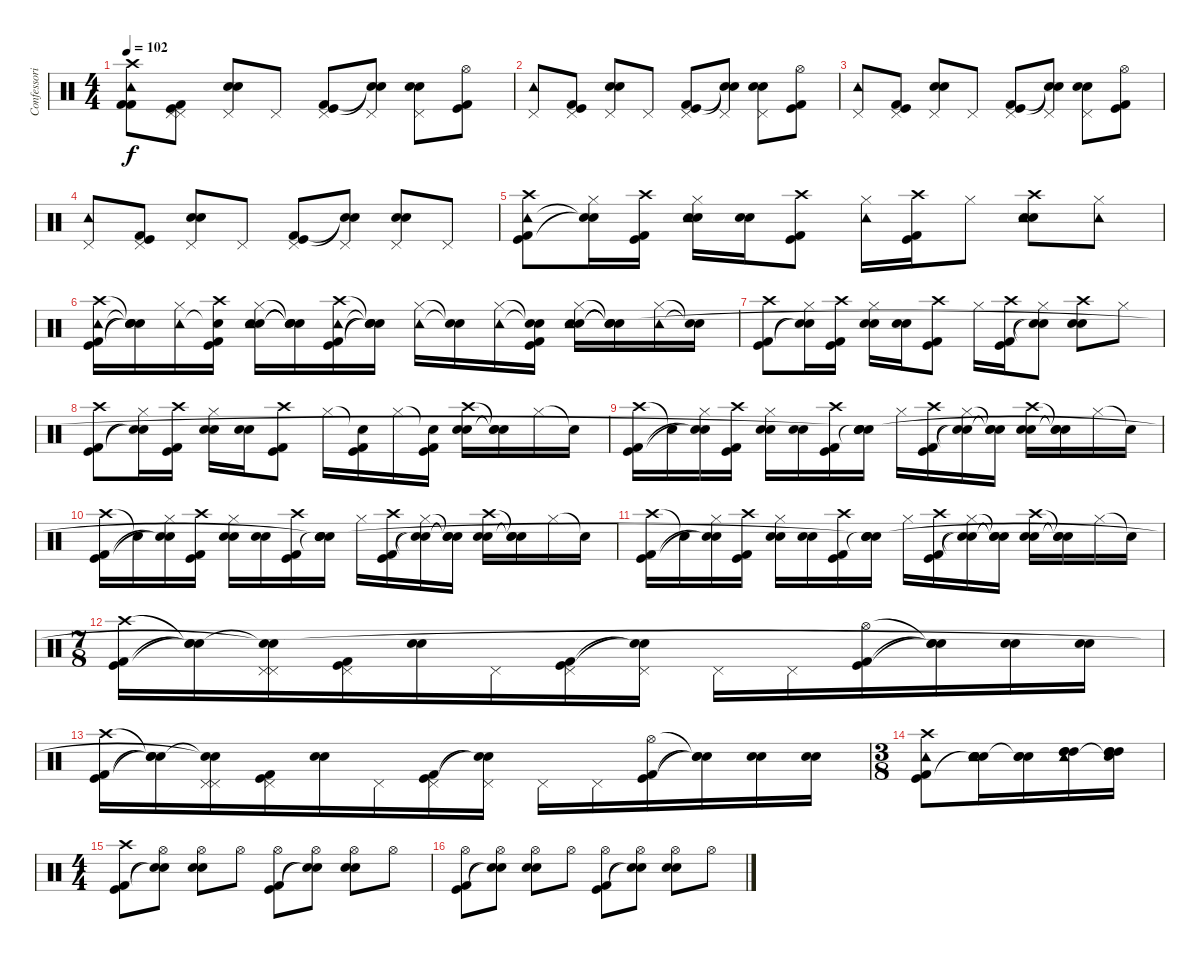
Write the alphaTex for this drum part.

\track ("Confessori" "Confessori") {instrument percussion}
\staff {score}
\articulation defaults
\ts (4 4)
\tempo 102
\clef neutral
\ks c
("Crash high (hit)" "Tambourine (hit)" "Kick (hit) 2" "Kick (hit) 2").8{dy f} ("Pedal Hi-Hat (hit)" "Pedal Hi-Hat (hit)" "Kick (hit) 2" "Kick (hit)").8 ("Pedal Hi-Hat (hit)" "Electric Snare (hit)" "Snare (hit) 2").8 "Pedal Hi-Hat (hit)".8 ("Pedal Hi-Hat (hit)" "Kick (hit)" "Kick (hit) 2").8 ("Pedal Hi-Hat (hit)" "Snare (hit)"{t} "Snare (hit)"{t}).8 ("Pedal Hi-Hat (hit)" "Electric Snare (hit)" "Snare (hit) 2").8 ("Hi-Hat (open)" "Kick (hit)" "Kick (hit) 2").8 |
("Pedal Hi-Hat (hit)" "Tambourine (hit)").8 ("Pedal Hi-Hat (hit)" "Kick (hit) 2" "Kick (hit)").8 ("Pedal Hi-Hat (hit)" "Electric Snare (hit)" "Snare (hit) 2").8 "Pedal Hi-Hat (hit)".8 ("Pedal Hi-Hat (hit)" "Kick (hit)" "Kick (hit) 2").8 ("Pedal Hi-Hat (hit)" "Snare (hit)"{t} "Snare (hit)"{t}).8 ("Pedal Hi-Hat (hit)" "Electric Snare (hit)" "Snare (hit) 2").8 ("Hi-Hat (open)" "Kick (hit)" "Kick (hit) 2").8 |
("Pedal Hi-Hat (hit)" "Tambourine (hit)").8 ("Pedal Hi-Hat (hit)" "Kick (hit) 2" "Kick (hit)").8 ("Pedal Hi-Hat (hit)" "Electric Snare (hit)" "Snare (hit) 2").8 "Pedal Hi-Hat (hit)".8 ("Pedal Hi-Hat (hit)" "Kick (hit)" "Kick (hit) 2").8 ("Pedal Hi-Hat (hit)" "Snare (hit)"{t} "Snare (hit)"{t}).8 ("Pedal Hi-Hat (hit)" "Electric Snare (hit)" "Snare (hit) 2").8 ("Hi-Hat (open)" "Kick (hit)" "Kick (hit) 2").8 |
("Pedal Hi-Hat (hit)" "Tambourine (hit)").8 ("Pedal Hi-Hat (hit)" "Kick (hit) 2" "Kick (hit)").8 ("Pedal Hi-Hat (hit)" "Electric Snare (hit)" "Snare (hit) 2").8 "Pedal Hi-Hat (hit)".8 ("Pedal Hi-Hat (hit)" "Kick (hit)" "Kick (hit) 2").8 ("Pedal Hi-Hat (hit)" "Snare (hit)"{t} "Snare (hit)"{t}).8 ("Pedal Hi-Hat (hit)" "Electric Snare (hit)" "Snare (hit) 2").8 "Pedal Hi-Hat (hit)".8 |
("Crash high (hit)" "Tambourine (hit)" "Kick (hit)" "Kick (hit) 2").8 ("Hi-Hat (closed)" "Snare (hit)"{t} "Snare (hit)"{t}).16 ("Crash high (hit)" "Kick (hit)" "Kick (hit) 2").16 ("Hi-Hat (closed)" "Electric Snare (hit)" "Snare (hit) 2" "Tambourine (hit)").16 ("Electric Snare (hit)" "Snare (hit) 2").16 ("Crash high (hit)" "Kick (hit)" "Kick (hit) 2").8 ("Hi-Hat (closed)" "Tambourine (hit)").16 ("Crash high (hit)" "Kick (hit)" "Kick (hit) 2").16 "Hi-Hat (closed)".8 ("Crash high (hit)" "Electric Snare (hit)" "Snare (hit) 2" "Tambourine (hit)").8 ("Hi-Hat (closed)" "Tambourine (hit)").8 |
("Crash high (hit)" "Tambourine (hit)" "Kick (hit)" "Kick (hit) 2").16 ("Snare (hit)"{t} "Snare (hit)"{t} "Snare (hit)"{t} "Snare (hit)"{t}).16 ("Hi-Hat (closed)" "Tambourine (hit)").16 ("Crash high (hit)" "Snare (hit)"{t} "Kick (hit)" "Kick (hit) 2").16 ("Hi-Hat (closed)" "Electric Snare (hit)" "Snare (hit) 2" "Tambourine (hit)").16 ("Snare (hit)"{t} "Snare (hit)"{t} "Snare (hit)"{t} "Snare (hit)"{t}).16 ("Crash high (hit)" "Tambourine (hit)" "Kick (hit)" "Kick (hit) 2").16 ("Snare (hit)"{t} "Snare (hit)"{t} "Snare (hit)"{t} "Snare (hit)"{t}).16 ("Hi-Hat (closed)" "Tambourine (hit)").16 ("Snare (hit)"{t} "Snare (hit)"{t}).16 ("Hi-Hat (closed)" "Tambourine (hit)").16 ("Snare (hit)"{t} "Snare (hit)"{t} "Kick (hit)" "Kick (hit) 2").16 ("Hi-Hat (closed)" "Electric Snare (hit)" "Snare (hit) 2" "Tambourine (hit)").16 ("Snare (hit)"{t} "Snare (hit)"{t} "Snare (hit)"{t} "Snare (hit)"{t}).16 ("Hi-Hat (closed)" "Tambourine (hit)").16 ("Snare (hit)"{t} "Snare (hit)"{t}).16 |
("Crash high (hit)" "Kick (hit) 2" "Kick (hit)").8 ("Hi-Hat (closed)" "Snare (hit)"{t} "Snare (hit)"{t}).16 ("Crash high (hit)" "Kick (hit) 2" "Kick (hit)").16 ("Hi-Hat (closed)" "Electric Snare (hit)" "Snare (hit) 2").16 ("Electric Snare (hit)" "Snare (hit) 2").16 ("Crash high (hit)" "Kick (hit) 2" "Kick (hit)").8 "Hi-Hat (closed)".16 ("Crash high (hit)" "Kick (hit) 2" "Kick (hit)").16 ("Hi-Hat (closed)" "Snare (hit)"{t} "Snare (hit)"{t}).8 ("Crash high (hit)" "Electric Snare (hit)" "Snare (hit) 2").8 "Hi-Hat (closed)".8 |
("Crash high (hit)" "Kick (hit) 2" "Kick (hit)").8 ("Hi-Hat (closed)" "Snare (hit)"{t} "Snare (hit)"{t}).16 ("Crash high (hit)" "Kick (hit) 2" "Kick (hit)").16 ("Hi-Hat (closed)" "Electric Snare (hit)" "Snare (hit) 2").16 ("Electric Snare (hit)" "Snare (hit) 2").16 ("Crash high (hit)" "Kick (hit)" "Kick (hit) 2").8 "Hi-Hat (closed)".16 ("Snare (hit)"{t} "Kick (hit)" "Kick (hit) 2").16 "Hi-Hat (closed)".16 ("Snare (hit)"{t} "Kick (hit)" "Kick (hit) 2").16 ("Crash high (hit)" "Electric Snare (hit)" "Snare (hit) 2").16 ("Snare (hit)"{t} "Snare (hit)"{t} "Snare (hit)"{t}).16 "Hi-Hat (closed)".16 "Snare (hit)"{t}.16 |
("Crash high (hit)" "Kick (hit)" "Kick (hit) 2").16 "Snare (hit)"{t}.16 ("Hi-Hat (closed)" "Snare (hit)"{t} "Snare (hit)"{t}).16 ("Crash high (hit)" "Kick (hit)" "Kick (hit) 2").16 ("Hi-Hat (closed)" "Electric Snare (hit)" "Snare (hit) 2").16 ("Electric Snare (hit)" "Snare (hit) 2").16 ("Crash high (hit)" "Kick (hit)" "Kick (hit) 2").16 ("Electric Snare (hit)" "Snare (hit) 2" "Snare (hit)"{t} "Snare (hit)"{t}).16 "Hi-Hat (closed)".16 ("Crash high (hit)" "Kick (hit)" "Kick (hit) 2").16 ("Hi-Hat (closed)" "Snare (hit)"{t} "Snare (hit)"{t}).16 ("Snare (hit)"{t} "Snare (hit)"{t} "Snare (hit)"{t}).16 ("Crash high (hit)" "Electric Snare (hit)" "Snare (hit) 2").16 ("Snare (hit)"{t} "Snare (hit)"{t} "Snare (hit)"{t}).16 "Hi-Hat (closed)".16 "Snare (hit)"{t}.16 |
("Crash high (hit)" "Kick (hit)" "Kick (hit) 2").16 "Snare (hit)"{t}.16 ("Hi-Hat (closed)" "Snare (hit)"{t} "Snare (hit)"{t}).16 ("Crash high (hit)" "Kick (hit)" "Kick (hit) 2").16 ("Hi-Hat (closed)" "Electric Snare (hit)" "Snare (hit) 2").16 ("Electric Snare (hit)" "Snare (hit) 2").16 ("Crash high (hit)" "Kick (hit)" "Kick (hit) 2").16 ("Electric Snare (hit)" "Snare (hit) 2" "Snare (hit)"{t} "Snare (hit)"{t}).16 "Hi-Hat (closed)".16 ("Crash high (hit)" "Kick (hit)" "Kick (hit) 2").16 ("Hi-Hat (closed)" "Snare (hit)"{t} "Snare (hit)"{t}).16 ("Snare (hit)"{t} "Snare (hit)"{t} "Snare (hit)"{t}).16 ("Crash high (hit)" "Electric Snare (hit)" "Snare (hit) 2").16 ("Snare (hit)"{t} "Snare (hit)"{t} "Snare (hit)"{t}).16 "Hi-Hat (closed)".16 "Snare (hit)"{t}.16 |
("Crash high (hit)" "Kick (hit)" "Kick (hit) 2").16 "Snare (hit)"{t}.16 ("Hi-Hat (closed)" "Snare (hit)"{t} "Snare (hit)"{t}).16 ("Crash high (hit)" "Kick (hit)" "Kick (hit) 2").16 ("Hi-Hat (closed)" "Electric Snare (hit)" "Snare (hit) 2").16 ("Electric Snare (hit)" "Snare (hit) 2").16 ("Crash high (hit)" "Kick (hit)" "Kick (hit) 2").16 ("Electric Snare (hit)" "Snare (hit) 2" "Snare (hit)"{t} "Snare (hit)"{t}).16 "Hi-Hat (closed)".16 ("Crash high (hit)" "Kick (hit)" "Kick (hit) 2").16 ("Hi-Hat (closed)" "Snare (hit)"{t} "Snare (hit)"{t}).16 ("Snare (hit)"{t} "Snare (hit)"{t} "Snare (hit)"{t}).16 ("Crash high (hit)" "Electric Snare (hit)" "Snare (hit) 2").16 ("Snare (hit)"{t} "Snare (hit)"{t} "Snare (hit)"{t}).16 "Hi-Hat (closed)".16 "Snare (hit)"{t}.16 |
\ts (7 8)
("Crash high (hit)" "Kick (hit)" "Kick (hit) 2").16 ("Snare (hit)"{t} "Snare (hit)"{t} "Snare (hit)"{t}).16 ("Pedal Hi-Hat (hit)" "Pedal Hi-Hat (hit)" "Snare (hit)"{t} "Snare (hit)"{t}).16 ("Pedal Hi-Hat (hit)" "Kick (hit)" "Kick (hit) 2").16 ("Electric Snare (hit)" "Snare (hit) 2").16 "Pedal Hi-Hat (hit)".16 ("Pedal Hi-Hat (hit)" "Kick (hit)" "Kick (hit) 2").16 ("Pedal Hi-Hat (hit)" "Snare (hit)"{t} "Snare (hit)"{t}).16 "Pedal Hi-Hat (hit)".16 "Pedal Hi-Hat (hit)".16 ("Hi-Hat (open)" "Kick (hit) 2" "Kick (hit)").16 ("Snare (hit)"{t} "Snare (hit)"{t} "Snare (hit)"{t}).16 ("Electric Snare (hit)" "Snare (hit) 2").16 ("Electric Snare (hit)" "Snare (hit) 2").16 |
("Crash high (hit)" "Kick (hit)" "Kick (hit) 2").16 ("Snare (hit)"{t} "Snare (hit)"{t} "Snare (hit)"{t}).16 ("Pedal Hi-Hat (hit)" "Pedal Hi-Hat (hit)" "Snare (hit)"{t} "Snare (hit)"{t}).16 ("Pedal Hi-Hat (hit)" "Kick (hit)" "Kick (hit) 2").16 ("Electric Snare (hit)" "Snare (hit) 2").16 "Pedal Hi-Hat (hit)".16 ("Pedal Hi-Hat (hit)" "Kick (hit)" "Kick (hit) 2").16 ("Pedal Hi-Hat (hit)" "Snare (hit)"{t} "Snare (hit)"{t}).16 "Pedal Hi-Hat (hit)".16 "Pedal Hi-Hat (hit)".16 ("Hi-Hat (open)" "Kick (hit) 2" "Kick (hit)").16 ("Snare (hit)"{t} "Snare (hit)"{t} "Snare (hit)"{t}).16 ("Electric Snare (hit)" "Snare (hit) 2").16 ("Electric Snare (hit)" "Snare (hit) 2").16 |
\ts (3 8)
("Crash high (hit)" "Tambourine (hit)" "Kick (hit) 2" "Kick (hit)").8 ("Electric Snare (hit)" "Snare (hit) 2" "Tambourine (hit)" "Snare (hit)"{t} "Snare (hit)").16 ("Electric Snare (hit)" "Snare (hit) 2" "Snare (hit)"{t}).16 ("High Tom (hit)" "High Tom (hit)" "High Tom (hit)" "Tambourine (hit)").16 ("High Tom (hit)" "High Tom (hit)" "High Tom (hit)" "Snare (hit)"{t}).16 |
\ts (4 4)
("Crash high (hit)" "Kick (hit)" "Kick (hit) 2").8 ("Hi-Hat (open)" "Snare (hit)"{t} "Snare (hit)"{t}).8 ("Hi-Hat (open)" "Electric Snare (hit)" "Snare (hit) 2").8 "Hi-Hat (open)".8 ("Hi-Hat (open)" "Kick (hit)" "Kick (hit) 2").8 ("Hi-Hat (open)" "Snare (hit)"{t} "Snare (hit)"{t}).8 ("Hi-Hat (open)" "Electric Snare (hit)" "Snare (hit) 2").8 "Hi-Hat (open)".8 |
("Hi-Hat (open)" "Kick (hit)" "Kick (hit) 2").8 ("Hi-Hat (open)" "Snare (hit)"{t} "Snare (hit)"{t}).8 ("Hi-Hat (open)" "Electric Snare (hit)" "Snare (hit) 2").8 "Hi-Hat (open)".8 ("Hi-Hat (open)" "Kick (hit)" "Kick (hit) 2").8 ("Hi-Hat (open)" "Snare (hit)"{t} "Snare (hit)"{t}).8 ("Hi-Hat (open)" "Electric Snare (hit)" "Snare (hit) 2").8 "Hi-Hat (open)".8
